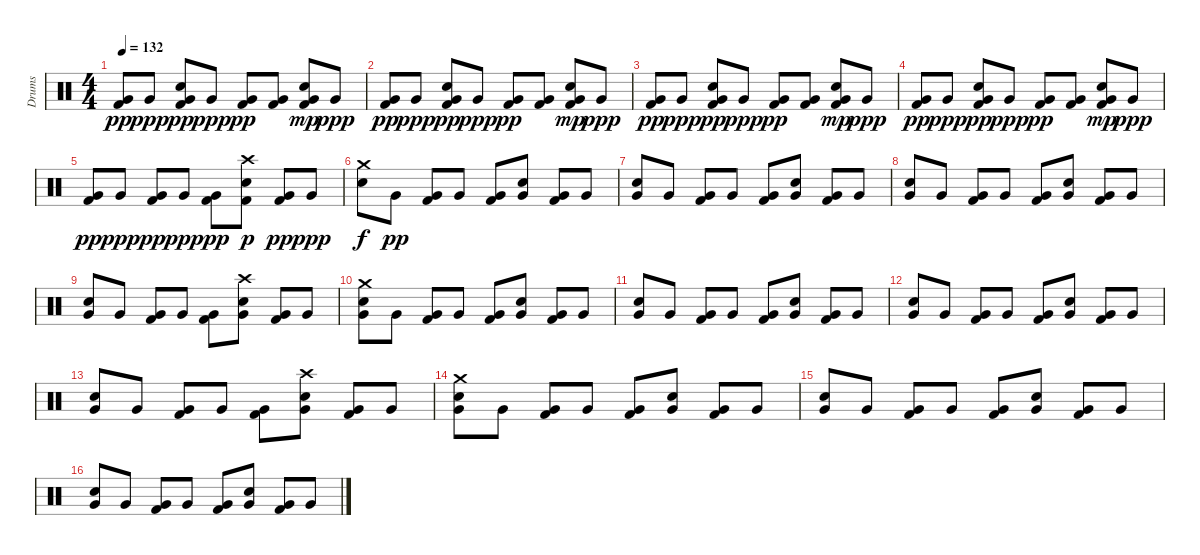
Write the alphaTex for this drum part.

\track ("Drums" "Drums") {instrument percussion}
\staff {score}
\articulation defaults
\ts (4 4)
\tempo 132
\clef neutral
\ks c
("Very Low Tom (hit)" "Kick (hit) 2").8{dy pp} "Very Low Tom (hit)".8{dy ppp} ("Electric Snare (hit)" "Very Low Tom (hit)" "Kick (hit) 2").8{dy pp} "Very Low Tom (hit)".8{dy ppp} ("Very Low Tom (hit)" "Kick (hit) 2").8{dy pp} ("Kick (hit) 2" "Very Low Tom (hit)").8 ("Electric Snare (hit)" "Very Low Tom (hit)" "Kick (hit) 2").8{dy mp} "Very Low Tom (hit)".8{dy ppp} |
("Very Low Tom (hit)" "Kick (hit) 2").8{dy pp} "Very Low Tom (hit)".8{dy ppp} ("Electric Snare (hit)" "Very Low Tom (hit)" "Kick (hit) 2").8{dy pp} "Very Low Tom (hit)".8{dy ppp} ("Very Low Tom (hit)" "Kick (hit) 2").8{dy pp} ("Kick (hit) 2" "Very Low Tom (hit)").8 ("Electric Snare (hit)" "Very Low Tom (hit)" "Kick (hit) 2").8{dy mp} "Very Low Tom (hit)".8{dy ppp} |
("Very Low Tom (hit)" "Kick (hit) 2").8{dy pp} "Very Low Tom (hit)".8{dy ppp} ("Electric Snare (hit)" "Very Low Tom (hit)" "Kick (hit) 2").8{dy pp} "Very Low Tom (hit)".8{dy ppp} ("Very Low Tom (hit)" "Kick (hit) 2").8{dy pp} ("Kick (hit) 2" "Very Low Tom (hit)").8 ("Electric Snare (hit)" "Very Low Tom (hit)" "Kick (hit) 2").8{dy mp} "Very Low Tom (hit)".8{dy ppp} |
("Very Low Tom (hit)" "Kick (hit) 2").8{dy pp} "Very Low Tom (hit)".8{dy ppp} ("Electric Snare (hit)" "Very Low Tom (hit)" "Kick (hit) 2").8{dy pp} "Very Low Tom (hit)".8{dy ppp} ("Very Low Tom (hit)" "Kick (hit) 2").8{dy pp} ("Kick (hit) 2" "Very Low Tom (hit)").8 ("Electric Snare (hit)" "Very Low Tom (hit)" "Kick (hit) 2").8{dy mp} "Very Low Tom (hit)".8{dy ppp} |
("Very Low Tom (hit)" "Kick (hit) 2").8{dy pp} "Very Low Tom (hit)".8{dy ppp} ("Very Low Tom (hit)" "Kick (hit) 2").8{dy pp} "Very Low Tom (hit)".8{dy ppp} ("Very Low Tom (hit)" "Kick (hit) 2").8{dy pp} ("Crash high (hit)" "Electric Snare (hit)" "Kick (hit) 2").8{dy p} ("Very Low Tom (hit)" "Kick (hit) 2").8{dy pp} "Very Low Tom (hit)".8{dy ppp} |
("Crash medium (hit)" "Electric Snare (hit)").8{dy f} "Very Low Tom (hit)".8{dy pp} ("Very Low Tom (hit)" "Kick (hit) 2").8 "Very Low Tom (hit)".8 ("Very Low Tom (hit)" "Kick (hit) 2").8 ("Very Low Tom (hit)" "Electric Snare (hit)").8 ("Very Low Tom (hit)" "Kick (hit) 2").8 "Very Low Tom (hit)".8 |
("Very Low Tom (hit)" "Electric Snare (hit)").8 "Very Low Tom (hit)".8 ("Very Low Tom (hit)" "Kick (hit) 2").8 "Very Low Tom (hit)".8 ("Very Low Tom (hit)" "Kick (hit) 2").8 ("Very Low Tom (hit)" "Electric Snare (hit)").8 ("Very Low Tom (hit)" "Kick (hit) 2").8 "Very Low Tom (hit)".8 |
("Very Low Tom (hit)" "Electric Snare (hit)").8 "Very Low Tom (hit)".8 ("Very Low Tom (hit)" "Kick (hit) 2").8 "Very Low Tom (hit)".8 ("Very Low Tom (hit)" "Kick (hit) 2").8 ("Very Low Tom (hit)" "Electric Snare (hit)").8 ("Very Low Tom (hit)" "Kick (hit) 2").8 "Very Low Tom (hit)".8 |
("Very Low Tom (hit)" "Electric Snare (hit)").8 "Very Low Tom (hit)".8 ("Very Low Tom (hit)" "Kick (hit) 2").8 "Very Low Tom (hit)".8 ("Very Low Tom (hit)" "Kick (hit) 2").8 ("Crash high (hit)" "Very Low Tom (hit)" "Electric Snare (hit)").8 ("Very Low Tom (hit)" "Kick (hit) 2").8 "Very Low Tom (hit)".8 |
("Crash medium (hit)" "Very Low Tom (hit)" "Electric Snare (hit)").8 "Very Low Tom (hit)".8 ("Very Low Tom (hit)" "Kick (hit) 2").8 "Very Low Tom (hit)".8 ("Very Low Tom (hit)" "Kick (hit) 2").8 ("Very Low Tom (hit)" "Electric Snare (hit)").8 ("Very Low Tom (hit)" "Kick (hit) 2").8 "Very Low Tom (hit)".8 |
("Very Low Tom (hit)" "Electric Snare (hit)").8 "Very Low Tom (hit)".8 ("Very Low Tom (hit)" "Kick (hit) 2").8 "Very Low Tom (hit)".8 ("Very Low Tom (hit)" "Kick (hit) 2").8 ("Very Low Tom (hit)" "Electric Snare (hit)").8 ("Very Low Tom (hit)" "Kick (hit) 2").8 "Very Low Tom (hit)".8 |
("Very Low Tom (hit)" "Electric Snare (hit)").8 "Very Low Tom (hit)".8 ("Very Low Tom (hit)" "Kick (hit) 2").8 "Very Low Tom (hit)".8 ("Very Low Tom (hit)" "Kick (hit) 2").8 ("Very Low Tom (hit)" "Electric Snare (hit)").8 ("Very Low Tom (hit)" "Kick (hit) 2").8 "Very Low Tom (hit)".8 |
("Very Low Tom (hit)" "Electric Snare (hit)").8 "Very Low Tom (hit)".8 ("Very Low Tom (hit)" "Kick (hit) 2").8 "Very Low Tom (hit)".8 ("Very Low Tom (hit)" "Kick (hit) 2").8 ("Crash high (hit)" "Very Low Tom (hit)" "Electric Snare (hit)").8 ("Very Low Tom (hit)" "Kick (hit) 2").8 "Very Low Tom (hit)".8 |
("Crash medium (hit)" "Very Low Tom (hit)" "Electric Snare (hit)").8 "Very Low Tom (hit)".8 ("Very Low Tom (hit)" "Kick (hit) 2").8 "Very Low Tom (hit)".8 ("Very Low Tom (hit)" "Kick (hit) 2").8 ("Very Low Tom (hit)" "Electric Snare (hit)").8 ("Very Low Tom (hit)" "Kick (hit) 2").8 "Very Low Tom (hit)".8 |
("Very Low Tom (hit)" "Electric Snare (hit)").8 "Very Low Tom (hit)".8 ("Very Low Tom (hit)" "Kick (hit) 2").8 "Very Low Tom (hit)".8 ("Very Low Tom (hit)" "Kick (hit) 2").8 ("Very Low Tom (hit)" "Electric Snare (hit)").8 ("Very Low Tom (hit)" "Kick (hit) 2").8 "Very Low Tom (hit)".8 |
("Very Low Tom (hit)" "Electric Snare (hit)").8 "Very Low Tom (hit)".8 ("Very Low Tom (hit)" "Kick (hit) 2").8 "Very Low Tom (hit)".8 ("Very Low Tom (hit)" "Kick (hit) 2").8 ("Very Low Tom (hit)" "Electric Snare (hit)").8 ("Very Low Tom (hit)" "Kick (hit) 2").8 "Very Low Tom (hit)".8
